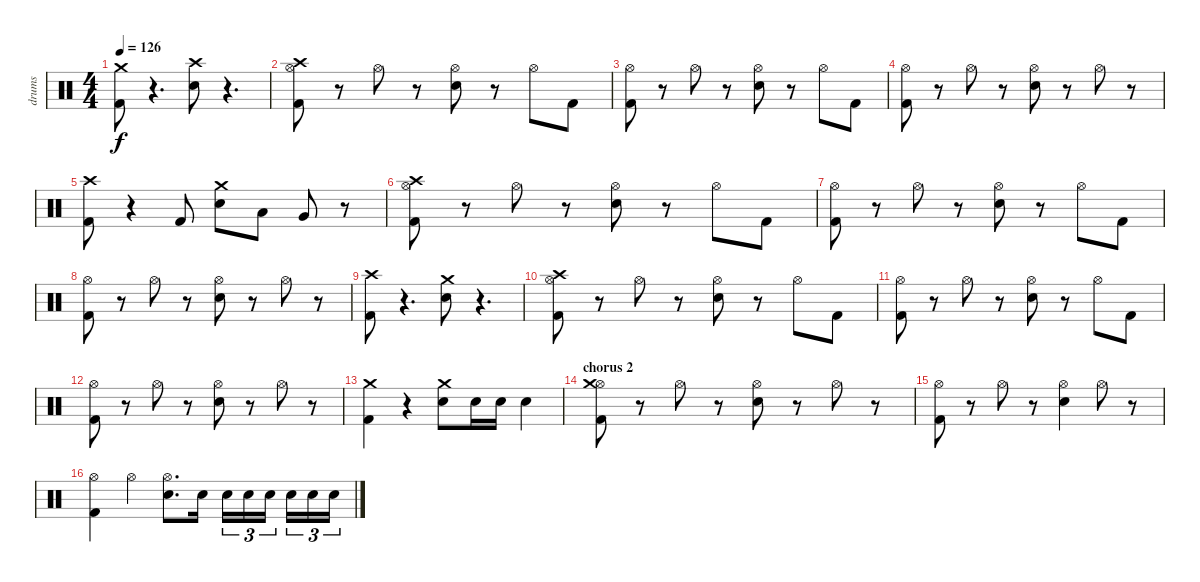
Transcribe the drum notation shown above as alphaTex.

\track ("drums" "drums") {instrument percussion}
\staff {score}
\articulation defaults
\ts (4 4)
\tempo 126
\clef neutral
\ks c
("Kick (hit) 2" "Crash medium (hit)").8{dy f} r.4{d} ("Electric Snare (hit)" "Crash high (hit)").8 r.4{d} |
("Kick (hit) 2" "Hi-Hat (open)" "Crash high (hit)").8 r.8 "Hi-Hat (open)".8 r.8 ("Electric Snare (hit)" "Hi-Hat (open)").8 r.8 "Hi-Hat (open)".8 "Kick (hit) 2".8 |
("Kick (hit) 2" "Hi-Hat (open)").8 r.8 "Hi-Hat (open)".8 r.8 ("Electric Snare (hit)" "Hi-Hat (open)").8 r.8 "Hi-Hat (open)".8 "Kick (hit) 2".8 |
("Kick (hit) 2" "Hi-Hat (open)").8 r.8 "Hi-Hat (open)".8 r.8 ("Electric Snare (hit)" "Hi-Hat (open)").8 r.8 "Hi-Hat (open)".8 r.8 |
("Kick (hit) 2" "Crash high (hit)").8 r.4 "Kick (hit) 2".8 ("Electric Snare (hit)" "Crash medium (hit)").8 "Low Tom (hit)".8 "Very Low Tom (hit)".8 r.8 |
("Kick (hit) 2" "Hi-Hat (open)" "Crash high (hit)").8 r.8 "Hi-Hat (open)".8 r.8 ("Electric Snare (hit)" "Hi-Hat (open)").8 r.8 "Hi-Hat (open)".8 "Kick (hit) 2".8 |
("Kick (hit) 2" "Hi-Hat (open)").8 r.8 "Hi-Hat (open)".8 r.8 ("Electric Snare (hit)" "Hi-Hat (open)").8 r.8 "Hi-Hat (open)".8 "Kick (hit) 2".8 |
("Kick (hit) 2" "Hi-Hat (open)").8 r.8 "Hi-Hat (open)".8 r.8 ("Electric Snare (hit)" "Hi-Hat (open)").8 r.8 "Hi-Hat (open)".8 r.8 |
("Kick (hit) 2" "Crash high (hit)").8 r.4{d} ("Electric Snare (hit)" "Crash medium (hit)").8 r.4{d} |
("Kick (hit) 2" "Hi-Hat (open)" "Crash high (hit)").8 r.8 "Hi-Hat (open)".8 r.8 ("Electric Snare (hit)" "Hi-Hat (open)").8 r.8 "Hi-Hat (open)".8 "Kick (hit) 2".8 |
("Kick (hit) 2" "Hi-Hat (open)").8 r.8 "Hi-Hat (open)".8 r.8 ("Electric Snare (hit)" "Hi-Hat (open)").8 r.8 "Hi-Hat (open)".8 "Kick (hit) 2".8 |
("Kick (hit) 2" "Hi-Hat (open)").8 r.8 "Hi-Hat (open)".8 r.8 ("Electric Snare (hit)" "Hi-Hat (open)").8 r.8 "Hi-Hat (open)".8 r.8 |
("Kick (hit) 2" "Crash medium (hit)").4 r.4 ("Crash medium (hit)" "Electric Snare (hit)").8 "Electric Snare (hit)".16 "Electric Snare (hit)".16 "Electric Snare (hit)".4 |
\section ("" "chorus 2")
("Kick (hit) 2" "Hi-Hat (open)" "Crash medium (hit)").8 r.8 "Hi-Hat (open)".8 r.8 ("Electric Snare (hit)" "Hi-Hat (open)").8 r.8 "Hi-Hat (open)".8 r.8 |
("Kick (hit) 2" "Hi-Hat (open)").8 r.8 "Hi-Hat (open)".8 r.8 ("Electric Snare (hit)" "Hi-Hat (open)").4 "Hi-Hat (open)".8 r.8 |
("Kick (hit) 2" "Hi-Hat (open)").4 "Hi-Hat (open)".4 ("Electric Snare (hit)" "Hi-Hat (open)").8{d} "Electric Snare (hit)".16 "Electric Snare (hit)".16{tu (3 2)} "Electric Snare (hit)".16{tu (3 2)} "Electric Snare (hit)".16{tu (3 2)} "Electric Snare (hit)".16{tu (3 2)} "Electric Snare (hit)".16{tu (3 2)} "Electric Snare (hit)".16{tu (3 2)}
